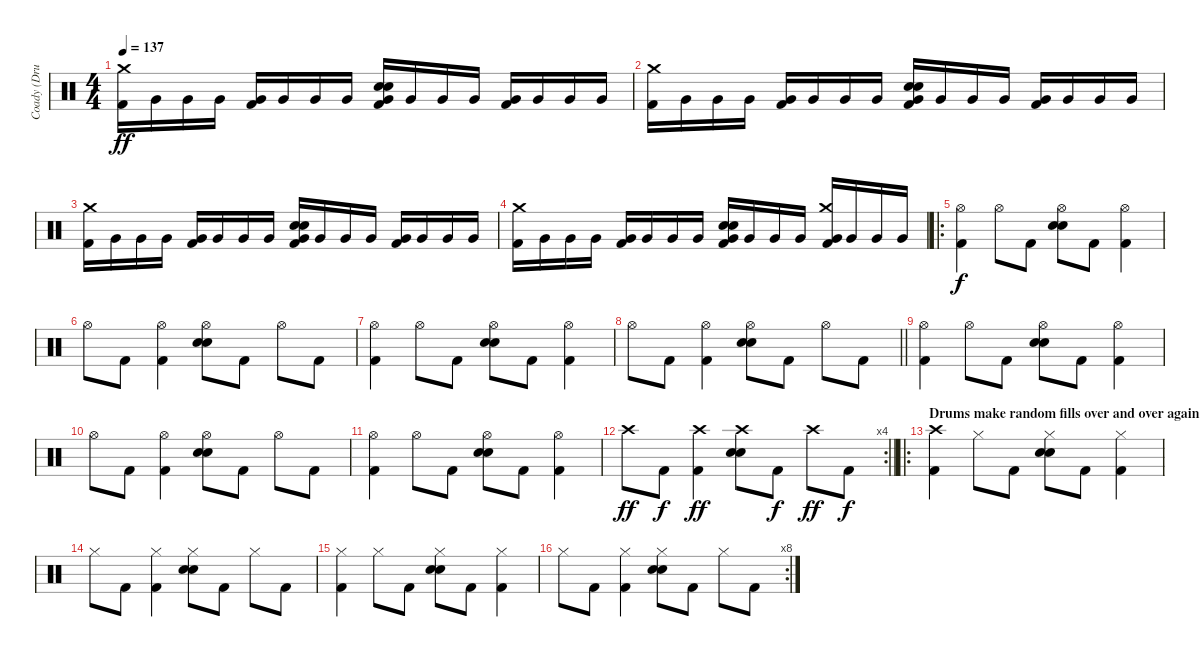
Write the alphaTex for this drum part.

\track ("Coady (Drums 2)" "Coady (Dru") {instrument percussion}
\staff {score}
\articulation defaults
\ts (4 4)
\tempo 137
\clef neutral
\ks c
("Kick (hit) 2" "Crash medium (hit)").16{dy ff} "Very Low Tom (hit)".16 "Very Low Tom (hit)".16 "Very Low Tom (hit)".16 ("Very Low Tom (hit)" "Kick (hit) 2").16 "Very Low Tom (hit)".16 "Very Low Tom (hit)".16 "Very Low Tom (hit)".16 ("Very Low Tom (hit)" "Snare (hit) 2" "Electric Snare (hit)" "Kick (hit) 2").16 "Very Low Tom (hit)".16 "Very Low Tom (hit)".16 "Very Low Tom (hit)".16 ("Very Low Tom (hit)" "Kick (hit) 2").16 "Very Low Tom (hit)".16 "Very Low Tom (hit)".16 "Very Low Tom (hit)".16 |
("Kick (hit) 2" "Crash medium (hit)").16 "Very Low Tom (hit)".16 "Very Low Tom (hit)".16 "Very Low Tom (hit)".16 ("Very Low Tom (hit)" "Kick (hit) 2").16 "Very Low Tom (hit)".16 "Very Low Tom (hit)".16 "Very Low Tom (hit)".16 ("Very Low Tom (hit)" "Snare (hit) 2" "Electric Snare (hit)" "Kick (hit) 2").16 "Very Low Tom (hit)".16 "Very Low Tom (hit)".16 "Very Low Tom (hit)".16 ("Very Low Tom (hit)" "Kick (hit) 2").16 "Very Low Tom (hit)".16 "Very Low Tom (hit)".16 "Very Low Tom (hit)".16 |
("Kick (hit) 2" "Crash medium (hit)").16 "Very Low Tom (hit)".16 "Very Low Tom (hit)".16 "Very Low Tom (hit)".16 ("Very Low Tom (hit)" "Kick (hit) 2").16 "Very Low Tom (hit)".16 "Very Low Tom (hit)".16 "Very Low Tom (hit)".16 ("Very Low Tom (hit)" "Snare (hit) 2" "Electric Snare (hit)" "Kick (hit) 2").16 "Very Low Tom (hit)".16 "Very Low Tom (hit)".16 "Very Low Tom (hit)".16 ("Very Low Tom (hit)" "Kick (hit) 2").16 "Very Low Tom (hit)".16 "Very Low Tom (hit)".16 "Very Low Tom (hit)".16 |
("Kick (hit) 2" "Crash medium (hit)").16 "Very Low Tom (hit)".16 "Very Low Tom (hit)".16 "Very Low Tom (hit)".16 ("Very Low Tom (hit)" "Kick (hit) 2").16 "Very Low Tom (hit)".16 "Very Low Tom (hit)".16 "Very Low Tom (hit)".16 ("Very Low Tom (hit)" "Snare (hit) 2" "Electric Snare (hit)" "Kick (hit) 2").16 "Very Low Tom (hit)".16 "Very Low Tom (hit)".16 "Very Low Tom (hit)".16 ("Very Low Tom (hit)" "Kick (hit) 2" "Crash medium (hit)").16 "Very Low Tom (hit)".16 "Very Low Tom (hit)".16 "Very Low Tom (hit)".16 |
\ro
("Hi-Hat (open)" "Kick (hit) 2").4{dy f} "Hi-Hat (open)".8 "Kick (hit) 2".8 ("Hi-Hat (open)" "Snare (hit) 2" "Electric Snare (hit)").8 "Kick (hit) 2".8 ("Kick (hit) 2" "Hi-Hat (open)").4 |
"Hi-Hat (open)".8 "Kick (hit) 2".8 ("Hi-Hat (open)" "Kick (hit) 2").4 ("Hi-Hat (open)" "Snare (hit) 2" "Electric Snare (hit)").8 "Kick (hit) 2".8 "Hi-Hat (open)".8 "Kick (hit) 2".8 |
("Hi-Hat (open)" "Kick (hit) 2").4 "Hi-Hat (open)".8 "Kick (hit) 2".8 ("Hi-Hat (open)" "Snare (hit) 2" "Electric Snare (hit)").8 "Kick (hit) 2".8 ("Kick (hit) 2" "Hi-Hat (open)").4 |
\barLineRight lightlight "Hi-Hat (open)".8 "Kick (hit) 2".8
("Hi-Hat (open)" "Kick (hit) 2").4 ("Hi-Hat (open)" "Snare (hit) 2" "Electric Snare (hit)").8 "Kick (hit) 2".8 "Hi-Hat (open)".8 "Kick (hit) 2".8 |
("Hi-Hat (open)" "Kick (hit) 2").4 "Hi-Hat (open)".8 "Kick (hit) 2".8 ("Hi-Hat (open)" "Snare (hit) 2" "Electric Snare (hit)").8 "Kick (hit) 2".8 ("Kick (hit) 2" "Hi-Hat (open)").4 |
"Hi-Hat (open)".8 "Kick (hit) 2".8 ("Hi-Hat (open)" "Kick (hit) 2").4 ("Hi-Hat (open)" "Snare (hit) 2" "Electric Snare (hit)").8 "Kick (hit) 2".8 "Hi-Hat (open)".8 "Kick (hit) 2".8 |
("Hi-Hat (open)" "Kick (hit) 2").4 "Hi-Hat (open)".8 "Kick (hit) 2".8 ("Hi-Hat (open)" "Snare (hit) 2" "Electric Snare (hit)").8 "Kick (hit) 2".8 ("Kick (hit) 2" "Hi-Hat (open)").4 |
\rc 4
\barLineRight lightlight "Crash high (hit)".8{dy ff} "Kick (hit) 2".8{dy f}
("Crash high (hit)" "Kick (hit) 2").4{dy ff} ("Crash high (hit)" "Snare (hit) 2" "Electric Snare (hit)").8 "Kick (hit) 2".8{dy f} "Crash high (hit)".8{dy ff} "Kick (hit) 2".8{dy f} |
\ro
\section ("" "Drums make random fills over and over again until end")
("Crash high (hit)" "Kick (hit) 2").4 "Hi-Hat (closed)".8 "Kick (hit) 2".8 ("Hi-Hat (closed)" "Snare (hit) 2" "Electric Snare (hit)").8 "Kick (hit) 2".8 ("Kick (hit) 2" "Hi-Hat (closed)").4 |
"Hi-Hat (closed)".8 "Kick (hit) 2".8 ("Hi-Hat (closed)" "Kick (hit) 2").4 ("Hi-Hat (closed)" "Snare (hit) 2" "Electric Snare (hit)").8 "Kick (hit) 2".8 "Hi-Hat (closed)".8 "Kick (hit) 2".8 |
("Hi-Hat (closed)" "Kick (hit) 2").4 "Hi-Hat (closed)".8 "Kick (hit) 2".8 ("Hi-Hat (closed)" "Snare (hit) 2" "Electric Snare (hit)").8 "Kick (hit) 2".8 ("Kick (hit) 2" "Hi-Hat (closed)").4 |
\rc 8 "Hi-Hat (closed)".8 "Kick (hit) 2".8
("Hi-Hat (closed)" "Kick (hit) 2").4 ("Hi-Hat (closed)" "Snare (hit) 2" "Electric Snare (hit)").8 "Kick (hit) 2".8 "Hi-Hat (closed)".8 "Kick (hit) 2".8
